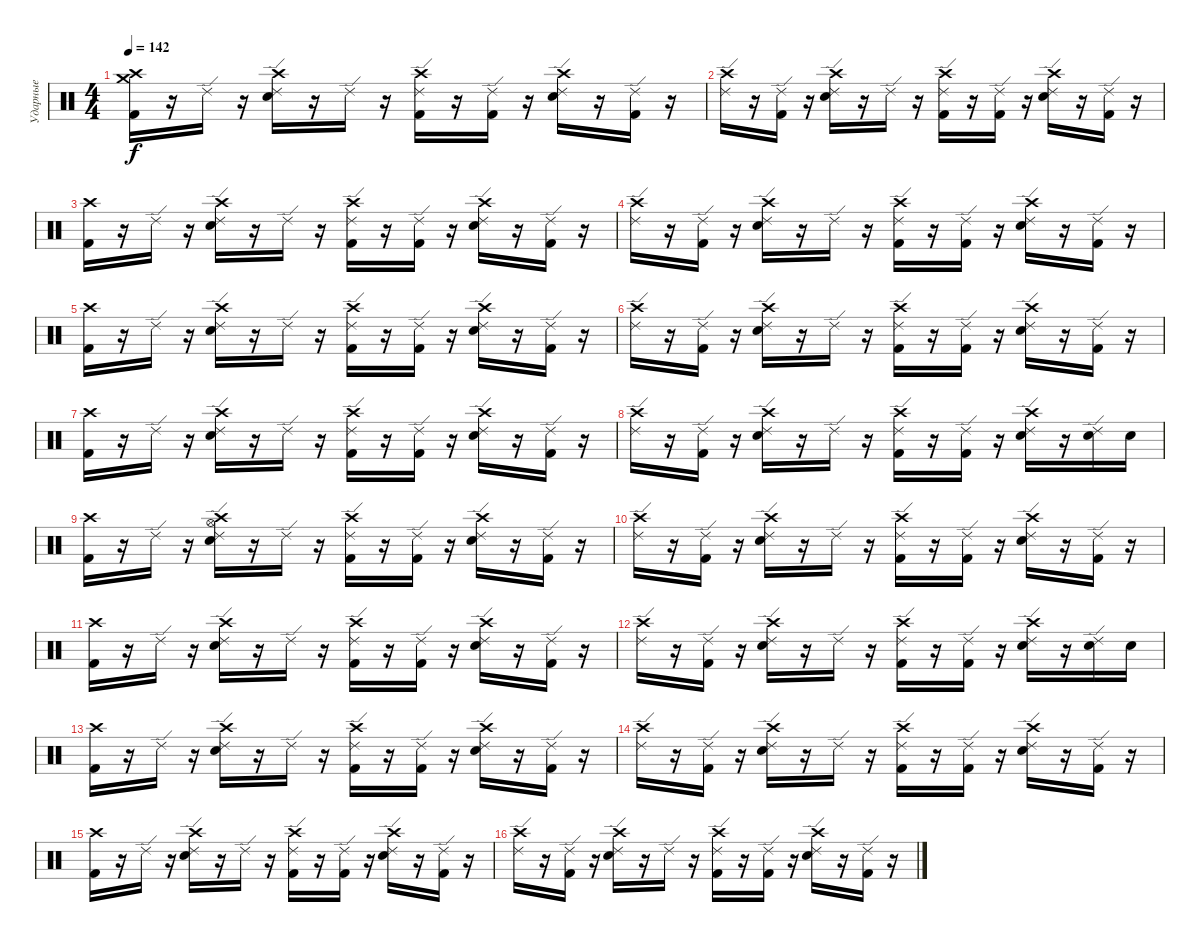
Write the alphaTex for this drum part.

\track ("Ударные" "Ударные") {instrument percussion}
\staff {score}
\articulation defaults
\ts (4 4)
\tempo 142
\clef neutral
\ks c
("Crash high (hit)" "Crash medium (hit)" "Kick (hit) 2").16{dy f} r.16 "Ride (edge) 2".16 r.16 ("Crash high (hit)" "Ride (edge) 2" "Electric Snare (hit)").16 r.16 "Ride (edge) 2".16 r.16 ("Crash high (hit)" "Ride (edge) 2" "Kick (hit) 2").16 r.16 ("Ride (edge) 2" "Kick (hit) 2").16 r.16 ("Crash high (hit)" "Ride (edge) 2" "Electric Snare (hit)").16 r.16 ("Ride (edge) 2" "Kick (hit) 2").16 r.16 |
("Crash high (hit)" "Ride (edge) 2").16 r.16 ("Ride (edge) 2" "Kick (hit) 2").16 r.16 ("Crash high (hit)" "Ride (edge) 2" "Electric Snare (hit)").16 r.16 "Ride (edge) 2".16 r.16 ("Crash high (hit)" "Ride (edge) 2" "Kick (hit) 2").16 r.16 ("Ride (edge) 2" "Kick (hit) 2").16 r.16 ("Crash high (hit)" "Ride (edge) 2" "Electric Snare (hit)").16 r.16 ("Ride (edge) 2" "Kick (hit) 2").16 r.16 |
("Crash high (hit)" "Kick (hit) 2").16 r.16 "Ride (edge) 2".16 r.16 ("Crash high (hit)" "Ride (edge) 2" "Electric Snare (hit)").16 r.16 "Ride (edge) 2".16 r.16 ("Crash high (hit)" "Ride (edge) 2" "Kick (hit) 2").16 r.16 ("Ride (edge) 2" "Kick (hit) 2").16 r.16 ("Crash high (hit)" "Ride (edge) 2" "Electric Snare (hit)").16 r.16 ("Ride (edge) 2" "Kick (hit) 2").16 r.16 |
("Crash high (hit)" "Ride (edge) 2").16 r.16 ("Ride (edge) 2" "Kick (hit) 2").16 r.16 ("Crash high (hit)" "Ride (edge) 2" "Electric Snare (hit)").16 r.16 "Ride (edge) 2".16 r.16 ("Crash high (hit)" "Ride (edge) 2" "Kick (hit) 2").16 r.16 ("Ride (edge) 2" "Kick (hit) 2").16 r.16 ("Crash high (hit)" "Ride (edge) 2" "Electric Snare (hit)").16 r.16 ("Ride (edge) 2" "Kick (hit) 2").16 r.16 |
("Crash high (hit)" "Kick (hit) 2").16 r.16 "Ride (edge) 2".16 r.16 ("Crash high (hit)" "Ride (edge) 2" "Electric Snare (hit)").16 r.16 "Ride (edge) 2".16 r.16 ("Crash high (hit)" "Ride (edge) 2" "Kick (hit) 2").16 r.16 ("Ride (edge) 2" "Kick (hit) 2").16 r.16 ("Crash high (hit)" "Ride (edge) 2" "Electric Snare (hit)").16 r.16 ("Ride (edge) 2" "Kick (hit) 2").16 r.16 |
("Crash high (hit)" "Ride (edge) 2").16 r.16 ("Ride (edge) 2" "Kick (hit) 2").16 r.16 ("Crash high (hit)" "Ride (edge) 2" "Electric Snare (hit)").16 r.16 "Ride (edge) 2".16 r.16 ("Crash high (hit)" "Ride (edge) 2" "Kick (hit) 2").16 r.16 ("Ride (edge) 2" "Kick (hit) 2").16 r.16 ("Crash high (hit)" "Ride (edge) 2" "Electric Snare (hit)").16 r.16 ("Ride (edge) 2" "Kick (hit) 2").16 r.16 |
("Crash high (hit)" "Kick (hit) 2").16 r.16 "Ride (edge) 2".16 r.16 ("Crash high (hit)" "Ride (edge) 2" "Electric Snare (hit)").16 r.16 "Ride (edge) 2".16 r.16 ("Crash high (hit)" "Ride (edge) 2" "Kick (hit) 2").16 r.16 ("Ride (edge) 2" "Kick (hit) 2").16 r.16 ("Crash high (hit)" "Ride (edge) 2" "Electric Snare (hit)").16 r.16 ("Ride (edge) 2" "Kick (hit) 2").16 r.16 |
("Crash high (hit)" "Ride (edge) 2").16 r.16 ("Ride (edge) 2" "Kick (hit) 2").16 r.16 ("Crash high (hit)" "Ride (edge) 2" "Electric Snare (hit)").16 r.16 "Ride (edge) 2".16 r.16 ("Crash high (hit)" "Ride (edge) 2" "Kick (hit) 2").16 r.16 ("Ride (edge) 2" "Kick (hit) 2").16 r.16 ("Crash high (hit)" "Ride (edge) 2" "Electric Snare (hit)").16 r.16 ("Ride (edge) 2" "Electric Snare (hit)").16 "Electric Snare (hit)".16 |
("Crash high (hit)" "Kick (hit) 2").16 r.16 "Ride (edge) 2".16 r.16 ("Crash high (hit)" "Hi-Hat (open)" "Ride (edge) 2" "Electric Snare (hit)").16 r.16 "Ride (edge) 2".16 r.16 ("Crash high (hit)" "Ride (edge) 2" "Kick (hit) 2").16 r.16 ("Ride (edge) 2" "Kick (hit) 2").16 r.16 ("Crash high (hit)" "Ride (edge) 2" "Electric Snare (hit)").16 r.16 ("Ride (edge) 2" "Kick (hit) 2").16 r.16 |
("Crash high (hit)" "Ride (edge) 2").16 r.16 ("Ride (edge) 2" "Kick (hit) 2").16 r.16 ("Crash high (hit)" "Ride (edge) 2" "Electric Snare (hit)").16 r.16 "Ride (edge) 2".16 r.16 ("Crash high (hit)" "Ride (edge) 2" "Kick (hit) 2").16 r.16 ("Ride (edge) 2" "Kick (hit) 2").16 r.16 ("Crash high (hit)" "Ride (edge) 2" "Electric Snare (hit)").16 r.16 ("Ride (edge) 2" "Kick (hit) 2").16 r.16 |
("Crash high (hit)" "Kick (hit) 2").16 r.16 "Ride (edge) 2".16 r.16 ("Crash high (hit)" "Ride (edge) 2" "Electric Snare (hit)").16 r.16 "Ride (edge) 2".16 r.16 ("Crash high (hit)" "Ride (edge) 2" "Kick (hit) 2").16 r.16 ("Ride (edge) 2" "Kick (hit) 2").16 r.16 ("Crash high (hit)" "Ride (edge) 2" "Electric Snare (hit)").16 r.16 ("Ride (edge) 2" "Kick (hit) 2").16 r.16 |
("Crash high (hit)" "Ride (edge) 2").16 r.16 ("Ride (edge) 2" "Kick (hit) 2").16 r.16 ("Crash high (hit)" "Ride (edge) 2" "Electric Snare (hit)").16 r.16 "Ride (edge) 2".16 r.16 ("Crash high (hit)" "Ride (edge) 2" "Kick (hit) 2").16 r.16 ("Ride (edge) 2" "Kick (hit) 2").16 r.16 ("Crash high (hit)" "Ride (edge) 2" "Electric Snare (hit)").16 r.16 ("Ride (edge) 2" "Electric Snare (hit)").16 "Electric Snare (hit)".16 |
("Crash high (hit)" "Kick (hit) 2").16 r.16 "Ride (edge) 2".16 r.16 ("Crash high (hit)" "Ride (edge) 2" "Electric Snare (hit)").16 r.16 "Ride (edge) 2".16 r.16 ("Crash high (hit)" "Ride (edge) 2" "Kick (hit) 2").16 r.16 ("Ride (edge) 2" "Kick (hit) 2").16 r.16 ("Crash high (hit)" "Ride (edge) 2" "Electric Snare (hit)").16 r.16 ("Ride (edge) 2" "Kick (hit) 2").16 r.16 |
("Crash high (hit)" "Ride (edge) 2").16 r.16 ("Ride (edge) 2" "Kick (hit) 2").16 r.16 ("Crash high (hit)" "Ride (edge) 2" "Electric Snare (hit)").16 r.16 "Ride (edge) 2".16 r.16 ("Crash high (hit)" "Ride (edge) 2" "Kick (hit) 2").16 r.16 ("Ride (edge) 2" "Kick (hit) 2").16 r.16 ("Crash high (hit)" "Ride (edge) 2" "Electric Snare (hit)").16 r.16 ("Ride (edge) 2" "Kick (hit) 2").16 r.16 |
("Crash high (hit)" "Kick (hit) 2").16 r.16 "Ride (edge) 2".16 r.16 ("Crash high (hit)" "Ride (edge) 2" "Electric Snare (hit)").16 r.16 "Ride (edge) 2".16 r.16 ("Crash high (hit)" "Ride (edge) 2" "Kick (hit) 2").16 r.16 ("Ride (edge) 2" "Kick (hit) 2").16 r.16 ("Crash high (hit)" "Ride (edge) 2" "Electric Snare (hit)").16 r.16 ("Ride (edge) 2" "Kick (hit) 2").16 r.16 |
("Crash high (hit)" "Ride (edge) 2").16 r.16 ("Ride (edge) 2" "Kick (hit) 2").16 r.16 ("Crash high (hit)" "Ride (edge) 2" "Electric Snare (hit)").16 r.16 "Ride (edge) 2".16 r.16 ("Crash high (hit)" "Ride (edge) 2" "Kick (hit) 2").16 r.16 ("Ride (edge) 2" "Kick (hit) 2").16 r.16 ("Crash high (hit)" "Ride (edge) 2" "Electric Snare (hit)").16 r.16 ("Ride (edge) 2" "Kick (hit) 2").16 r.16
